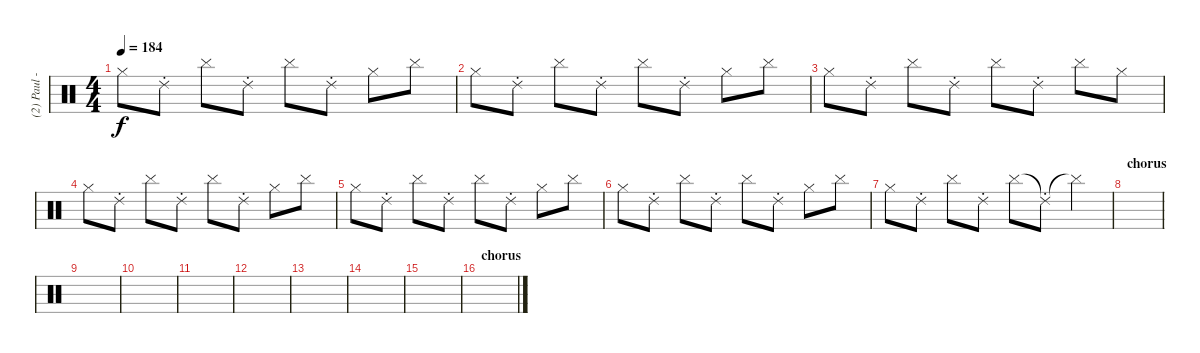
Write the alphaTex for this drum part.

\track ("(2) Paul - DJ" "(2) Paul -") {instrument percussion}
\staff {score}
\articulation defaults
\ts (4 4)
\tempo 184
\clef neutral
\ks c "Hi-Hat (closed)".8{dy f} "Ride (choke) 2".8 "Cymbal (hit)".8 "Ride (choke) 2".8 "Cymbal (hit)".8 "Ride (choke) 2".8 "Hi-Hat (closed)".8 "Cymbal (hit)".8
|
"Hi-Hat (closed)".8 "Ride (choke) 2".8 "Cymbal (hit)".8 "Ride (choke) 2".8 "Cymbal (hit)".8 "Ride (choke) 2".8 "Hi-Hat (closed)".8 "Cymbal (hit)".8 |
"Hi-Hat (closed)".8 "Ride (choke) 2".8 "Cymbal (hit)".8 "Ride (choke) 2".8 "Cymbal (hit)".8 "Ride (choke) 2".8 "Cymbal (hit)".8 "Hi-Hat (closed)".8 |
"Hi-Hat (closed)".8 "Ride (choke) 2".8 "Cymbal (hit)".8 "Ride (choke) 2".8 "Cymbal (hit)".8 "Ride (choke) 2".8 "Hi-Hat (closed)".8 "Cymbal (hit)".8 |
"Hi-Hat (closed)".8 "Ride (choke) 2".8 "Cymbal (hit)".8 "Ride (choke) 2".8 "Cymbal (hit)".8 "Ride (choke) 2".8 "Hi-Hat (closed)".8 "Cymbal (hit)".8 |
"Hi-Hat (closed)".8 "Ride (choke) 2".8 "Cymbal (hit)".8 "Ride (choke) 2".8 "Cymbal (hit)".8 "Ride (choke) 2".8 "Hi-Hat (closed)".8 "Cymbal (hit)".8 |
"Hi-Hat (closed)".8 "Ride (choke) 2".8 "Cymbal (hit)".8 "Ride (choke) 2".8 "Cymbal (hit)".8 "Ride (choke) 2"{t}.8 "Cymbal (hit)"{t}.4 |
\section ("" "chorus")
|
|
|
|
|
|
|
|
\section ("" "chorus")
